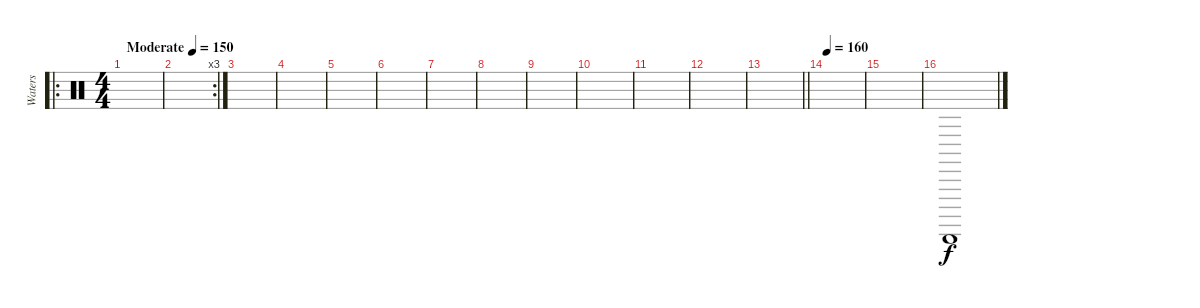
\track ("Waters " "Waters ") {instrument percussion}
\staff {score}
\articulation defaults
\ro
\ts (4 4)
\section ("" "")
\tempo (150 "Moderate")
\clef neutral
\ks c
|
\rc 3
|
|
|
|
|
|
|
|
|
|
|
\barLineRight lightlight
|
\section ("" "")
\tempo 160
|
|
"Guiro (scrap-return)".1
